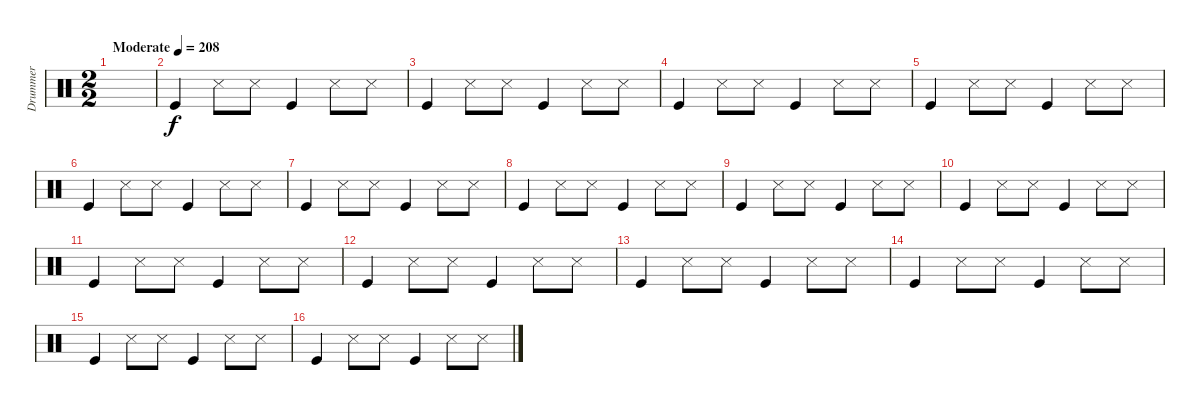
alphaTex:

\track ("Drummer" "Drummer") {instrument percussion}
\staff {score}
\articulation defaults
\ts (2 2)
\tempo (208 "Moderate")
\clef neutral
\ks c
|
"Kick (hit)".4 "Snare (side stick) 3".8 "Snare (side stick) 3".8 "Kick (hit)".4 "Snare (side stick) 3".8 "Snare (side stick) 3".8 |
"Kick (hit)".4 "Snare (side stick) 3".8 "Snare (side stick) 3".8 "Kick (hit)".4 "Snare (side stick) 3".8 "Snare (side stick) 3".8 |
"Kick (hit)".4 "Snare (side stick) 3".8 "Snare (side stick) 3".8 "Kick (hit)".4 "Snare (side stick) 3".8 "Snare (side stick) 3".8 |
"Kick (hit)".4 "Snare (side stick) 3".8 "Snare (side stick) 3".8 "Kick (hit)".4 "Snare (side stick) 3".8 "Snare (side stick) 3".8 |
"Kick (hit)".4 "Snare (side stick) 3".8 "Snare (side stick) 3".8 "Kick (hit)".4 "Snare (side stick) 3".8 "Snare (side stick) 3".8 |
"Kick (hit)".4 "Snare (side stick) 3".8 "Snare (side stick) 3".8 "Kick (hit)".4 "Snare (side stick) 3".8 "Snare (side stick) 3".8 |
"Kick (hit)".4 "Snare (side stick) 3".8 "Snare (side stick) 3".8 "Kick (hit)".4 "Snare (side stick) 3".8 "Snare (side stick) 3".8 |
"Kick (hit)".4 "Snare (side stick) 3".8 "Snare (side stick) 3".8 "Kick (hit)".4 "Snare (side stick) 3".8 "Snare (side stick) 3".8 |
"Kick (hit)".4 "Snare (side stick) 3".8 "Snare (side stick) 3".8 "Kick (hit)".4 "Snare (side stick) 3".8 "Snare (side stick) 3".8 |
"Kick (hit)".4 "Snare (side stick) 3".8 "Snare (side stick) 3".8 "Kick (hit)".4 "Snare (side stick) 3".8 "Snare (side stick) 3".8 |
"Kick (hit)".4 "Snare (side stick) 3".8 "Snare (side stick) 3".8 "Kick (hit)".4 "Snare (side stick) 3".8 "Snare (side stick) 3".8 |
"Kick (hit)".4 "Snare (side stick) 3".8 "Snare (side stick) 3".8 "Kick (hit)".4 "Snare (side stick) 3".8 "Snare (side stick) 3".8 |
"Kick (hit)".4 "Snare (side stick) 3".8 "Snare (side stick) 3".8 "Kick (hit)".4 "Snare (side stick) 3".8 "Snare (side stick) 3".8 |
"Kick (hit)".4 "Snare (side stick) 3".8 "Snare (side stick) 3".8 "Kick (hit)".4 "Snare (side stick) 3".8 "Snare (side stick) 3".8 |
"Kick (hit)".4 "Snare (side stick) 3".8 "Snare (side stick) 3".8 "Kick (hit)".4 "Snare (side stick) 3".8 "Snare (side stick) 3".8
